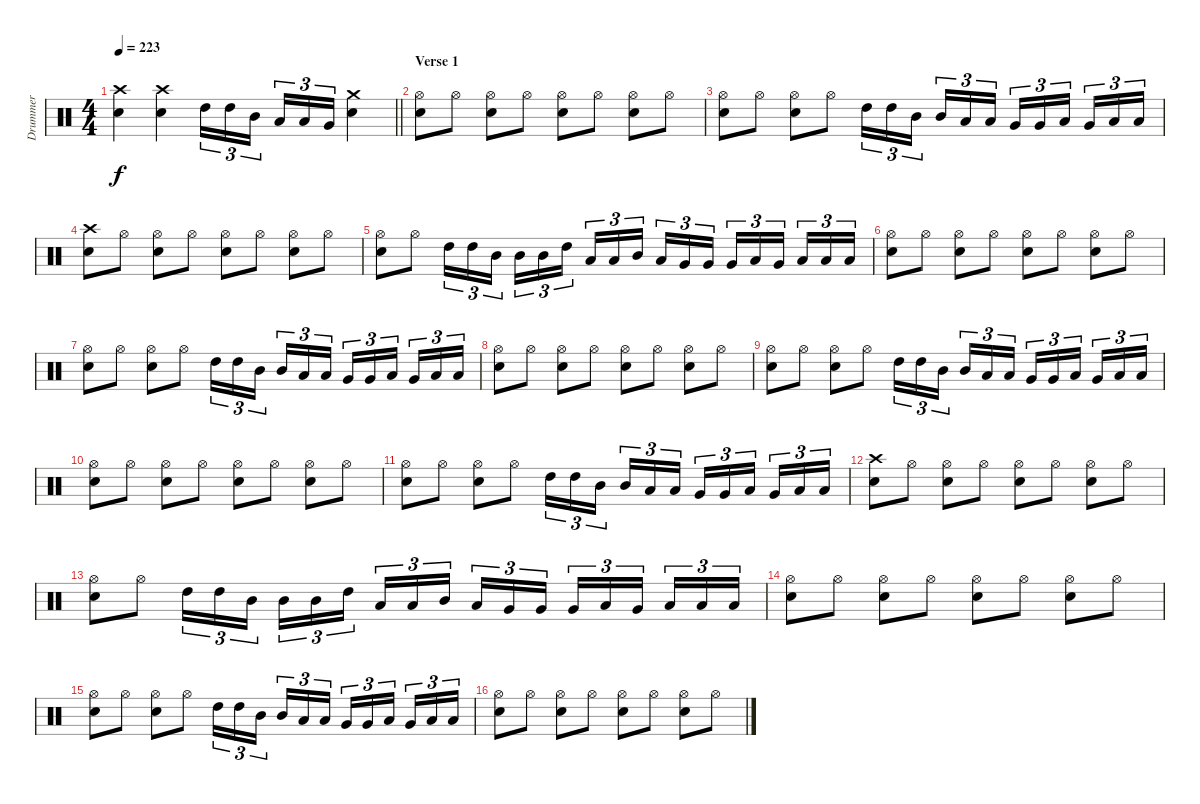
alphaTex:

\track ("Drummer" "Drummer") {instrument percussion}
\staff {score}
\articulation defaults
\ts (4 4)
\tempo 223
\clef neutral
\barLineRight lightlight
\ks c
("Crash high (hit)" "Electric Snare (hit)").4{dy f} ("Crash high (hit)" "Electric Snare (hit)").4 "High Tom (hit)".16{tu (3 2)} "High Tom (hit)".16{tu (3 2)} "Mid Tom (hit)".16{tu (3 2) beam splitsecondary} "Low Tom (hit)".16{tu (3 2)} "Low Tom (hit)".16{tu (3 2)} "Very Low Tom (hit)".16{tu (3 2)} ("Crash medium (hit)" "Electric Snare (hit)").4 |
\section ("" "Verse 1")
("Hi-Hat (open)" "Electric Snare (hit)").8 "Hi-Hat (open)".8 ("Hi-Hat (open)" "Electric Snare (hit)").8 "Hi-Hat (open)".8 ("Hi-Hat (open)" "Electric Snare (hit)").8 "Hi-Hat (open)".8 ("Hi-Hat (open)" "Electric Snare (hit)").8 "Hi-Hat (open)".8 |
("Hi-Hat (open)" "Electric Snare (hit)").8 "Hi-Hat (open)".8 ("Hi-Hat (open)" "Electric Snare (hit)").8 "Hi-Hat (open)".8 "High Tom (hit)".16{tu (3 2)} "High Tom (hit)".16{tu (3 2)} "Mid Tom (hit)".16{tu (3 2) beam splitsecondary} "Mid Tom (hit)".16{tu (3 2)} "Low Tom (hit)".16{tu (3 2)} "Low Tom (hit)".16{tu (3 2)} "Very Low Tom (hit)".16{tu (3 2)} "Very Low Tom (hit)".16{tu (3 2)} "Low Tom (hit)".16{tu (3 2) beam splitsecondary} "Very Low Tom (hit)".16{tu (3 2)} "Low Floor Tom (hit)".16{tu (3 2)} "Low Floor Tom (hit)".16{tu (3 2)} |
("Crash high (hit)" "Electric Snare (hit)").8 "Hi-Hat (open)".8 ("Hi-Hat (open)" "Electric Snare (hit)").8 "Hi-Hat (open)".8 ("Hi-Hat (open)" "Electric Snare (hit)").8 "Hi-Hat (open)".8 ("Hi-Hat (open)" "Electric Snare (hit)").8 "Hi-Hat (open)".8 |
("Hi-Hat (open)" "Electric Snare (hit)").8 "Hi-Hat (open)".8 "High Tom (hit)".16{tu (3 2)} "High Tom (hit)".16{tu (3 2)} "Mid Tom (hit)".16{tu (3 2) beam splitsecondary} "Mid Tom (hit)".16{tu (3 2)} "Mid Tom (hit)".16{tu (3 2)} "High Tom (hit)".16{tu (3 2)} "Low Tom (hit)".16{tu (3 2)} "Low Tom (hit)".16{tu (3 2)} "Mid Tom (hit)".16{tu (3 2) beam splitsecondary} "Low Tom (hit)".16{tu (3 2)} "Very Low Tom (hit)".16{tu (3 2)} "Very Low Tom (hit)".16{tu (3 2)} "Very Low Tom (hit)".16{tu (3 2)} "Low Tom (hit)".16{tu (3 2)} "Very Low Tom (hit)".16{tu (3 2) beam splitsecondary} "Low Floor Tom (hit)".16{tu (3 2)} "Low Floor Tom (hit)".16{tu (3 2)} "Low Floor Tom (hit)".16{tu (3 2)} |
("Hi-Hat (open)" "Electric Snare (hit)").8 "Hi-Hat (open)".8 ("Hi-Hat (open)" "Electric Snare (hit)").8 "Hi-Hat (open)".8 ("Hi-Hat (open)" "Electric Snare (hit)").8 "Hi-Hat (open)".8 ("Hi-Hat (open)" "Electric Snare (hit)").8 "Hi-Hat (open)".8 |
("Hi-Hat (open)" "Electric Snare (hit)").8 "Hi-Hat (open)".8 ("Hi-Hat (open)" "Electric Snare (hit)").8 "Hi-Hat (open)".8 "High Tom (hit)".16{tu (3 2)} "High Tom (hit)".16{tu (3 2)} "Mid Tom (hit)".16{tu (3 2) beam splitsecondary} "Mid Tom (hit)".16{tu (3 2)} "Low Tom (hit)".16{tu (3 2)} "Low Tom (hit)".16{tu (3 2)} "Very Low Tom (hit)".16{tu (3 2)} "Very Low Tom (hit)".16{tu (3 2)} "Low Tom (hit)".16{tu (3 2) beam splitsecondary} "Very Low Tom (hit)".16{tu (3 2)} "Low Floor Tom (hit)".16{tu (3 2)} "Low Floor Tom (hit)".16{tu (3 2)} |
("Hi-Hat (open)" "Electric Snare (hit)").8 "Hi-Hat (open)".8 ("Hi-Hat (open)" "Electric Snare (hit)").8 "Hi-Hat (open)".8 ("Hi-Hat (open)" "Electric Snare (hit)").8 "Hi-Hat (open)".8 ("Hi-Hat (open)" "Electric Snare (hit)").8 "Hi-Hat (open)".8 |
("Hi-Hat (open)" "Electric Snare (hit)").8 "Hi-Hat (open)".8 ("Hi-Hat (open)" "Electric Snare (hit)").8 "Hi-Hat (open)".8 "High Tom (hit)".16{tu (3 2)} "High Tom (hit)".16{tu (3 2)} "Mid Tom (hit)".16{tu (3 2) beam splitsecondary} "Mid Tom (hit)".16{tu (3 2)} "Low Tom (hit)".16{tu (3 2)} "Low Tom (hit)".16{tu (3 2)} "Very Low Tom (hit)".16{tu (3 2)} "Very Low Tom (hit)".16{tu (3 2)} "Low Tom (hit)".16{tu (3 2) beam splitsecondary} "Very Low Tom (hit)".16{tu (3 2)} "Low Floor Tom (hit)".16{tu (3 2)} "Low Floor Tom (hit)".16{tu (3 2)} |
("Hi-Hat (open)" "Electric Snare (hit)").8 "Hi-Hat (open)".8 ("Hi-Hat (open)" "Electric Snare (hit)").8 "Hi-Hat (open)".8 ("Hi-Hat (open)" "Electric Snare (hit)").8 "Hi-Hat (open)".8 ("Hi-Hat (open)" "Electric Snare (hit)").8 "Hi-Hat (open)".8 |
("Hi-Hat (open)" "Electric Snare (hit)").8 "Hi-Hat (open)".8 ("Hi-Hat (open)" "Electric Snare (hit)").8 "Hi-Hat (open)".8 "High Tom (hit)".16{tu (3 2)} "High Tom (hit)".16{tu (3 2)} "Mid Tom (hit)".16{tu (3 2) beam splitsecondary} "Mid Tom (hit)".16{tu (3 2)} "Low Tom (hit)".16{tu (3 2)} "Low Tom (hit)".16{tu (3 2)} "Very Low Tom (hit)".16{tu (3 2)} "Very Low Tom (hit)".16{tu (3 2)} "Low Tom (hit)".16{tu (3 2) beam splitsecondary} "Very Low Tom (hit)".16{tu (3 2)} "Low Floor Tom (hit)".16{tu (3 2)} "Low Floor Tom (hit)".16{tu (3 2)} |
("Crash high (hit)" "Electric Snare (hit)").8 "Hi-Hat (open)".8 ("Hi-Hat (open)" "Electric Snare (hit)").8 "Hi-Hat (open)".8 ("Hi-Hat (open)" "Electric Snare (hit)").8 "Hi-Hat (open)".8 ("Hi-Hat (open)" "Electric Snare (hit)").8 "Hi-Hat (open)".8 |
("Hi-Hat (open)" "Electric Snare (hit)").8 "Hi-Hat (open)".8 "High Tom (hit)".16{tu (3 2)} "High Tom (hit)".16{tu (3 2)} "Mid Tom (hit)".16{tu (3 2) beam splitsecondary} "Mid Tom (hit)".16{tu (3 2)} "Mid Tom (hit)".16{tu (3 2)} "High Tom (hit)".16{tu (3 2)} "Low Tom (hit)".16{tu (3 2)} "Low Tom (hit)".16{tu (3 2)} "Mid Tom (hit)".16{tu (3 2) beam splitsecondary} "Low Tom (hit)".16{tu (3 2)} "Very Low Tom (hit)".16{tu (3 2)} "Very Low Tom (hit)".16{tu (3 2)} "Very Low Tom (hit)".16{tu (3 2)} "Low Tom (hit)".16{tu (3 2)} "Very Low Tom (hit)".16{tu (3 2) beam splitsecondary} "Low Floor Tom (hit)".16{tu (3 2)} "Low Floor Tom (hit)".16{tu (3 2)} "Low Floor Tom (hit)".16{tu (3 2)} |
("Hi-Hat (open)" "Electric Snare (hit)").8 "Hi-Hat (open)".8 ("Hi-Hat (open)" "Electric Snare (hit)").8 "Hi-Hat (open)".8 ("Hi-Hat (open)" "Electric Snare (hit)").8 "Hi-Hat (open)".8 ("Hi-Hat (open)" "Electric Snare (hit)").8 "Hi-Hat (open)".8 |
("Hi-Hat (open)" "Electric Snare (hit)").8 "Hi-Hat (open)".8 ("Hi-Hat (open)" "Electric Snare (hit)").8 "Hi-Hat (open)".8 "High Tom (hit)".16{tu (3 2)} "High Tom (hit)".16{tu (3 2)} "Mid Tom (hit)".16{tu (3 2) beam splitsecondary} "Mid Tom (hit)".16{tu (3 2)} "Low Tom (hit)".16{tu (3 2)} "Low Tom (hit)".16{tu (3 2)} "Very Low Tom (hit)".16{tu (3 2)} "Very Low Tom (hit)".16{tu (3 2)} "Low Tom (hit)".16{tu (3 2) beam splitsecondary} "Very Low Tom (hit)".16{tu (3 2)} "Low Floor Tom (hit)".16{tu (3 2)} "Low Floor Tom (hit)".16{tu (3 2)} |
("Hi-Hat (open)" "Electric Snare (hit)").8 "Hi-Hat (open)".8 ("Hi-Hat (open)" "Electric Snare (hit)").8 "Hi-Hat (open)".8 ("Hi-Hat (open)" "Electric Snare (hit)").8 "Hi-Hat (open)".8 ("Hi-Hat (open)" "Electric Snare (hit)").8 "Hi-Hat (open)".8
